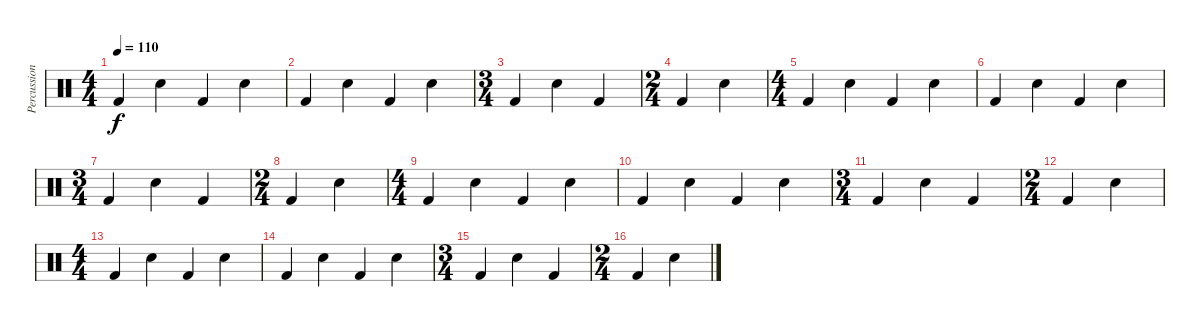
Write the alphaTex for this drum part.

\track ("Percussion" "Percussion") {instrument percussion}
\staff {score}
\articulation defaults
\ts (4 4)
\tempo 110
\clef neutral
\ks c "Kick (hit) 2".4{dy f} "Snare (hit) 2".4 "Kick (hit) 2".4 "Snare (hit) 2".4
|
"Kick (hit) 2".4 "Snare (hit) 2".4 "Kick (hit) 2".4 "Snare (hit) 2".4 |
\ts (3 4)
"Kick (hit) 2".4 "Snare (hit) 2".4 "Kick (hit) 2".4 |
\ts (2 4)
"Kick (hit) 2".4 "Snare (hit) 2".4 |
\ts (4 4)
"Kick (hit) 2".4 "Snare (hit) 2".4 "Kick (hit) 2".4 "Snare (hit) 2".4 |
"Kick (hit) 2".4 "Snare (hit) 2".4 "Kick (hit) 2".4 "Snare (hit) 2".4 |
\ts (3 4)
"Kick (hit) 2".4 "Snare (hit) 2".4 "Kick (hit) 2".4 |
\ts (2 4)
"Kick (hit) 2".4 "Snare (hit) 2".4 |
\ts (4 4)
"Kick (hit) 2".4 "Snare (hit) 2".4 "Kick (hit) 2".4 "Snare (hit) 2".4 |
"Kick (hit) 2".4 "Snare (hit) 2".4 "Kick (hit) 2".4 "Snare (hit) 2".4 |
\ts (3 4)
"Kick (hit) 2".4 "Snare (hit) 2".4 "Kick (hit) 2".4 |
\ts (2 4)
"Kick (hit) 2".4 "Snare (hit) 2".4 |
\ts (4 4)
"Kick (hit) 2".4 "Snare (hit) 2".4 "Kick (hit) 2".4 "Snare (hit) 2".4 |
"Kick (hit) 2".4 "Snare (hit) 2".4 "Kick (hit) 2".4 "Snare (hit) 2".4 |
\ts (3 4)
"Kick (hit) 2".4 "Snare (hit) 2".4 "Kick (hit) 2".4 |
\ts (2 4)
"Kick (hit) 2".4 "Snare (hit) 2".4
